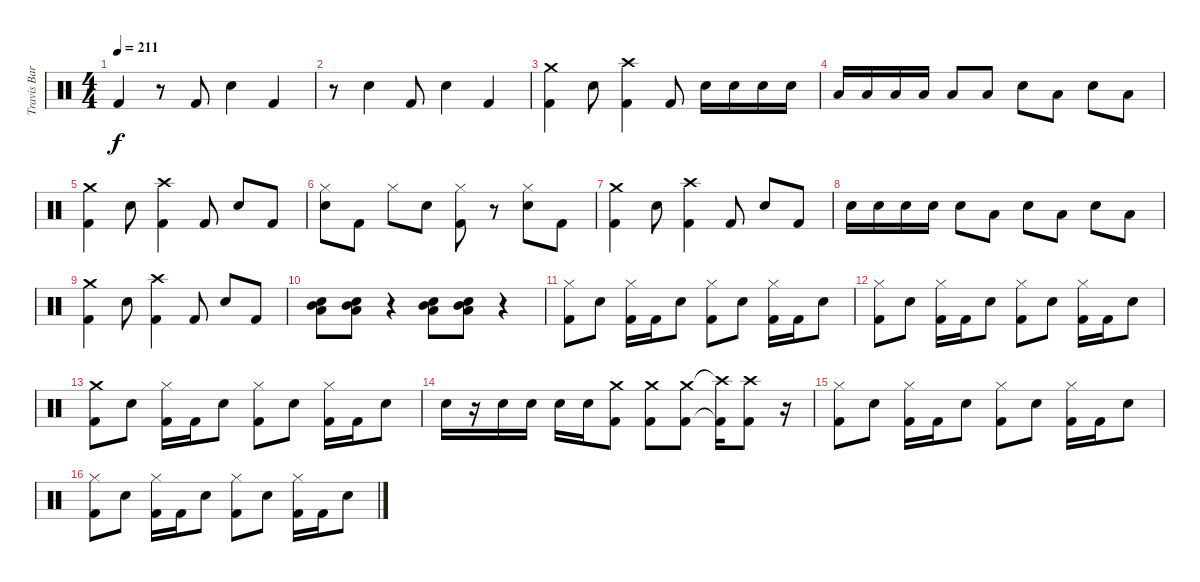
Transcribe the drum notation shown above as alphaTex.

\track ("Travis Barker (Drums)" "Travis Bar") {instrument percussion}
\staff {score}
\articulation defaults
\ts (4 4)
\tempo 211
\clef neutral
\ks c "Kick (hit) 2".4{dy f}
r.8 "Kick (hit) 2".8 "Electric Snare (hit)".4 "Kick (hit) 2".4 |
r.8 "Electric Snare (hit)".4 "Kick (hit) 2".8 "Electric Snare (hit)".4 "Kick (hit) 2".4 |
("Kick (hit) 2" "Crash medium (hit)").4 "Electric Snare (hit)".8 ("Kick (hit) 2" "Crash high (hit)").4 "Kick (hit) 2".8 "Electric Snare (hit)".16 "Electric Snare (hit)".16 "Electric Snare (hit)".16 "Electric Snare (hit)".16 |
"Low Floor Tom (hit)".16 "Low Floor Tom (hit)".16 "Low Floor Tom (hit)".16 "Low Floor Tom (hit)".16 "Low Floor Tom (hit)".8 "Low Floor Tom (hit)".8 "Electric Snare (hit)".8 "Low Floor Tom (hit)".8 "Electric Snare (hit)".8 "Low Floor Tom (hit)".8 |
("Kick (hit) 2" "Crash medium (hit)").4 "Electric Snare (hit)".8 ("Kick (hit) 2" "Crash high (hit)").4 "Kick (hit) 2".8 "Electric Snare (hit)".8 "Kick (hit) 2".8 |
("Electric Snare (hit)" "Hi-Hat (closed)").8 "Kick (hit) 2".8 "Hi-Hat (closed)".8 "Electric Snare (hit)".8 ("Kick (hit) 2" "Hi-Hat (closed)").8 r.8 ("Electric Snare (hit)" "Hi-Hat (closed)").8 "Kick (hit) 2".8 |
("Kick (hit) 2" "Crash medium (hit)").4 "Electric Snare (hit)".8 ("Kick (hit) 2" "Crash high (hit)").4 "Kick (hit) 2".8 "Electric Snare (hit)".8 "Kick (hit) 2".8 |
"Electric Snare (hit)".16 "Electric Snare (hit)".16 "Electric Snare (hit)".16 "Electric Snare (hit)".16 "Electric Snare (hit)".8 "Low Floor Tom (hit)".8 "Electric Snare (hit)".8 "Low Floor Tom (hit)".8 "Electric Snare (hit)".8 "Low Floor Tom (hit)".8 |
("Kick (hit) 2" "Crash medium (hit)").4 "Electric Snare (hit)".8 ("Kick (hit) 2" "Crash high (hit)").4 "Kick (hit) 2".8 "Electric Snare (hit)".8 "Kick (hit) 2".8 |
("Electric Snare (hit)" "Mid Tom (hit)" "Low Floor Tom (hit)").8 ("Electric Snare (hit)" "Mid Tom (hit)" "Low Floor Tom (hit)").8 r.4 ("Electric Snare (hit)" "Mid Tom (hit)" "Low Floor Tom (hit)").8 ("Electric Snare (hit)" "Mid Tom (hit)" "Low Floor Tom (hit)").8 r.4 |
("Kick (hit) 2" "Hi-Hat (closed)").8 "Electric Snare (hit)".8 ("Kick (hit) 2" "Hi-Hat (closed)").16 "Kick (hit) 2".16 "Electric Snare (hit)".8 ("Kick (hit) 2" "Hi-Hat (closed)").8 "Electric Snare (hit)".8 ("Kick (hit) 2" "Hi-Hat (closed)").16 "Kick (hit) 2".16 "Electric Snare (hit)".8 |
("Kick (hit) 2" "Hi-Hat (closed)").8 "Electric Snare (hit)".8 ("Kick (hit) 2" "Hi-Hat (closed)").16 "Kick (hit) 2".16 "Electric Snare (hit)".8 ("Kick (hit) 2" "Hi-Hat (closed)").8 "Electric Snare (hit)".8 ("Kick (hit) 2" "Hi-Hat (closed)").16 "Kick (hit) 2".16 "Electric Snare (hit)".8 |
("Kick (hit) 2" "Crash medium (hit)").8 "Electric Snare (hit)".8 ("Kick (hit) 2" "Hi-Hat (closed)").16 "Kick (hit) 2".16 "Electric Snare (hit)".8 ("Kick (hit) 2" "Hi-Hat (closed)").8 "Electric Snare (hit)".8 ("Kick (hit) 2" "Hi-Hat (closed)").16 "Kick (hit) 2".16 "Electric Snare (hit)".8 |
"Electric Snare (hit)".16 r.16 "Electric Snare (hit)".16 "Electric Snare (hit)".16 "Electric Snare (hit)".16 "Electric Snare (hit)".16 ("Crash medium (hit)" "Kick (hit) 2").8 ("Crash medium (hit)" "Kick (hit) 2").8 ("Crash medium (hit)" "Kick (hit) 2").8 ("Crash high (hit)"{t} "Kick (hit) 2"{t}).16 ("Crash high (hit)" "Kick (hit) 2").8 r.16 |
("Kick (hit) 2" "Hi-Hat (closed)").8 "Electric Snare (hit)".8 ("Kick (hit) 2" "Hi-Hat (closed)").16 "Kick (hit) 2".16 "Electric Snare (hit)".8 ("Kick (hit) 2" "Hi-Hat (closed)").8 "Electric Snare (hit)".8 ("Kick (hit) 2" "Hi-Hat (closed)").16 "Kick (hit) 2".16 "Electric Snare (hit)".8 |
("Kick (hit) 2" "Hi-Hat (closed)").8 "Electric Snare (hit)".8 ("Kick (hit) 2" "Hi-Hat (closed)").16 "Kick (hit) 2".16 "Electric Snare (hit)".8 ("Kick (hit) 2" "Hi-Hat (closed)").8 "Electric Snare (hit)".8 ("Kick (hit) 2" "Hi-Hat (closed)").16 "Kick (hit) 2".16 "Electric Snare (hit)".8
